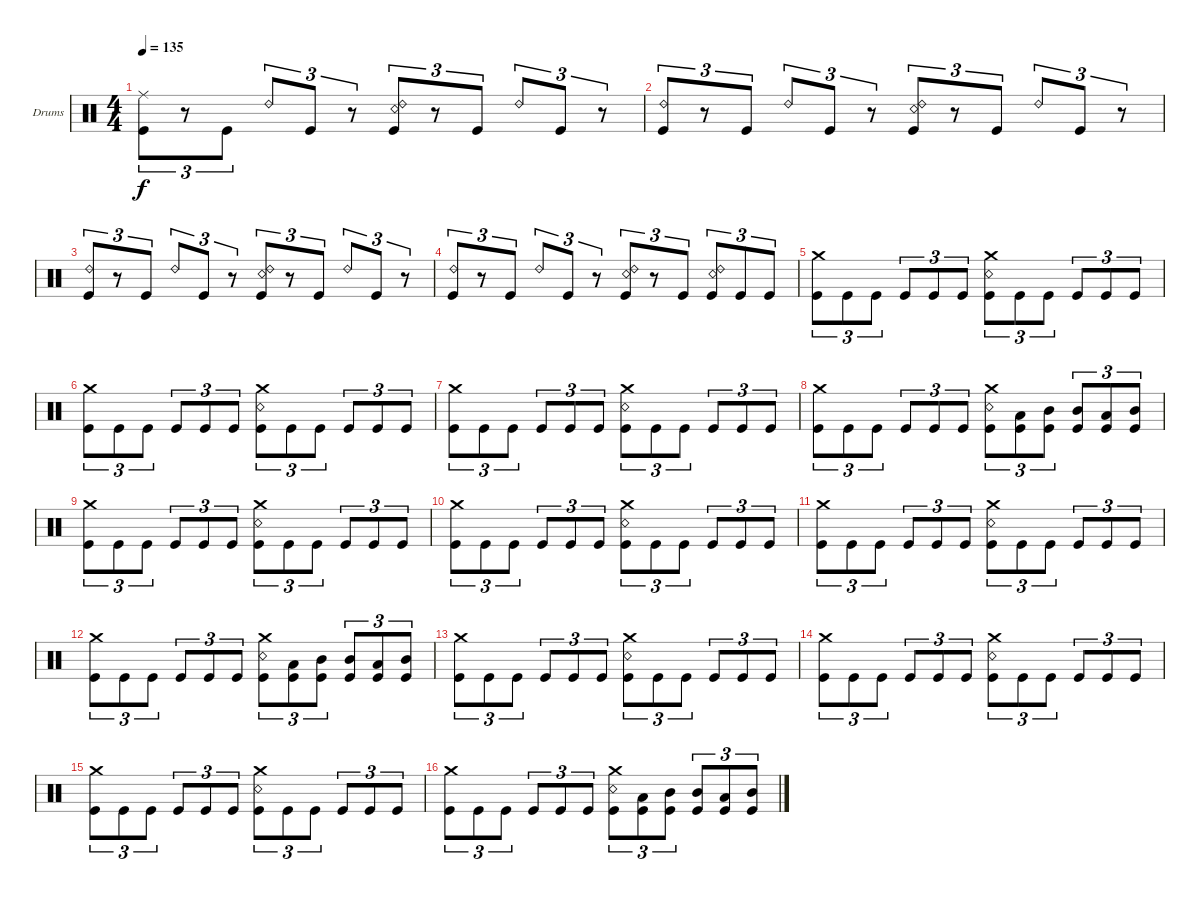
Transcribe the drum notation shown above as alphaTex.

\defaultSystemsLayout 4
\bracketExtendMode groupsimilarinstruments
\firstSystemTrackNameOrientation horizontal
\otherSystemsTrackNameOrientation horizontal
\track ("Drumkit" "Drums") {instrument percussion}
\staff {score}
\articulation defaults
\ts (4 4)
\tempo 135
\clef neutral
\ks c
("Kick (hit)" "Ride (middle)").8{tu (3 2) dy f} r.8{tu (3 2)} "Kick (hit)".8{tu (3 2)} "Ride (bell) 2".8{tu (3 2)} "Kick (hit)".8{tu (3 2)} r.8{tu (3 2)} ("Kick (hit)" "Ride (bell) 2" "Snare (rim shot)").8{tu (3 2)} r.8{tu (3 2)} "Kick (hit)".8{tu (3 2)} "Ride (bell) 2".8{tu (3 2)} "Kick (hit)".8{tu (3 2)} r.8{tu (3 2)} |
("Kick (hit)" "Ride (bell) 2").8{tu (3 2)} r.8{tu (3 2)} "Kick (hit)".8{tu (3 2)} "Ride (bell) 2".8{tu (3 2)} "Kick (hit)".8{tu (3 2)} r.8{tu (3 2)} ("Ride (bell) 2" "Snare (rim shot)" "Kick (hit)").8{tu (3 2)} r.8{tu (3 2)} "Kick (hit)".8{tu (3 2)} "Ride (bell) 2".8{tu (3 2)} "Kick (hit)".8{tu (3 2)} r.8{tu (3 2)} |
("Kick (hit)" "Ride (bell) 2").8{tu (3 2)} r.8{tu (3 2)} "Kick (hit)".8{tu (3 2)} "Ride (bell) 2".8{tu (3 2)} "Kick (hit)".8{tu (3 2)} r.8{tu (3 2)} ("Kick (hit)" "Ride (bell) 2" "Snare (rim shot)").8{tu (3 2)} r.8{tu (3 2)} "Kick (hit)".8{tu (3 2)} "Ride (bell) 2".8{tu (3 2)} "Kick (hit)".8{tu (3 2)} r.8{tu (3 2)} |
("Kick (hit)" "Ride (bell) 2").8{tu (3 2)} r.8{tu (3 2)} "Kick (hit)".8{tu (3 2)} "Ride (bell) 2".8{tu (3 2)} "Kick (hit)".8{tu (3 2)} r.8{tu (3 2)} ("Kick (hit)" "Ride (bell) 2" "Snare (rim shot)").8{tu (3 2)} r.8{tu (3 2)} "Kick (hit)".8{tu (3 2)} ("Ride (bell) 2" "Kick (hit)" "Snare (rim shot)").8{tu (3 2)} "Kick (hit)".8{tu (3 2)} "Kick (hit)".8{tu (3 2)} |
("Kick (hit)" "Crash medium (hit)").8{tu (3 2)} "Kick (hit)".8{tu (3 2)} "Kick (hit)".8{tu (3 2)} "Kick (hit)".8{tu (3 2)} "Kick (hit)".8{tu (3 2)} "Kick (hit)".8{tu (3 2)} ("Kick (hit)" "Crash medium (hit)" "Snare (rim shot)").8{tu (3 2)} "Kick (hit)".8{tu (3 2)} "Kick (hit)".8{tu (3 2)} "Kick (hit)".8{tu (3 2)} "Kick (hit)".8{tu (3 2)} "Kick (hit)".8{tu (3 2)} |
("Kick (hit)" "Crash medium (hit)").8{tu (3 2)} "Kick (hit)".8{tu (3 2)} "Kick (hit)".8{tu (3 2)} "Kick (hit)".8{tu (3 2)} "Kick (hit)".8{tu (3 2)} "Kick (hit)".8{tu (3 2)} ("Kick (hit)" "Crash medium (hit)" "Snare (rim shot)").8{tu (3 2)} "Kick (hit)".8{tu (3 2)} "Kick (hit)".8{tu (3 2)} "Kick (hit)".8{tu (3 2)} "Kick (hit)".8{tu (3 2)} "Kick (hit)".8{tu (3 2)} |
("Kick (hit)" "Crash medium (hit)").8{tu (3 2)} "Kick (hit)".8{tu (3 2)} "Kick (hit)".8{tu (3 2)} "Kick (hit)".8{tu (3 2)} "Kick (hit)".8{tu (3 2)} "Kick (hit)".8{tu (3 2)} ("Kick (hit)" "Crash medium (hit)" "Snare (rim shot)").8{tu (3 2)} "Kick (hit)".8{tu (3 2)} "Kick (hit)".8{tu (3 2)} "Kick (hit)".8{tu (3 2)} "Kick (hit)".8{tu (3 2)} "Kick (hit)".8{tu (3 2)} |
("Kick (hit)" "Crash medium (hit)").8{tu (3 2)} "Kick (hit)".8{tu (3 2)} "Kick (hit)".8{tu (3 2)} "Kick (hit)".8{tu (3 2)} "Kick (hit)".8{tu (3 2)} "Kick (hit)".8{tu (3 2)} ("Kick (hit)" "Crash medium (hit)" "Snare (rim shot)").8{tu (3 2)} ("Kick (hit)" "Low Tom (hit)").8{tu (3 2)} ("Kick (hit)" "Mid Tom (hit)").8{tu (3 2)} ("Kick (hit)" "Mid Tom (hit)").8{tu (3 2)} ("Kick (hit)" "Low Tom (hit)").8{tu (3 2)} ("Kick (hit)" "Mid Tom (hit)").8{tu (3 2)} |
("Kick (hit)" "Crash medium (hit)").8{tu (3 2)} "Kick (hit)".8{tu (3 2)} "Kick (hit)".8{tu (3 2)} "Kick (hit)".8{tu (3 2)} "Kick (hit)".8{tu (3 2)} "Kick (hit)".8{tu (3 2)} ("Kick (hit)" "Crash medium (hit)" "Snare (rim shot)").8{tu (3 2)} "Kick (hit)".8{tu (3 2)} "Kick (hit)".8{tu (3 2)} "Kick (hit)".8{tu (3 2)} "Kick (hit)".8{tu (3 2)} "Kick (hit)".8{tu (3 2)} |
("Kick (hit)" "Crash medium (hit)").8{tu (3 2)} "Kick (hit)".8{tu (3 2)} "Kick (hit)".8{tu (3 2)} "Kick (hit)".8{tu (3 2)} "Kick (hit)".8{tu (3 2)} "Kick (hit)".8{tu (3 2)} ("Kick (hit)" "Crash medium (hit)" "Snare (rim shot)").8{tu (3 2)} "Kick (hit)".8{tu (3 2)} "Kick (hit)".8{tu (3 2)} "Kick (hit)".8{tu (3 2)} "Kick (hit)".8{tu (3 2)} "Kick (hit)".8{tu (3 2)} |
("Kick (hit)" "Crash medium (hit)").8{tu (3 2)} "Kick (hit)".8{tu (3 2)} "Kick (hit)".8{tu (3 2)} "Kick (hit)".8{tu (3 2)} "Kick (hit)".8{tu (3 2)} "Kick (hit)".8{tu (3 2)} ("Kick (hit)" "Crash medium (hit)" "Snare (rim shot)").8{tu (3 2)} "Kick (hit)".8{tu (3 2)} "Kick (hit)".8{tu (3 2)} "Kick (hit)".8{tu (3 2)} "Kick (hit)".8{tu (3 2)} "Kick (hit)".8{tu (3 2)} |
("Kick (hit)" "Crash medium (hit)").8{tu (3 2)} "Kick (hit)".8{tu (3 2)} "Kick (hit)".8{tu (3 2)} "Kick (hit)".8{tu (3 2)} "Kick (hit)".8{tu (3 2)} "Kick (hit)".8{tu (3 2)} ("Kick (hit)" "Crash medium (hit)" "Snare (rim shot)").8{tu (3 2)} ("Kick (hit)" "Low Tom (hit)").8{tu (3 2)} ("Kick (hit)" "Mid Tom (hit)").8{tu (3 2)} ("Kick (hit)" "Mid Tom (hit)").8{tu (3 2)} ("Kick (hit)" "Low Tom (hit)").8{tu (3 2)} ("Kick (hit)" "Mid Tom (hit)").8{tu (3 2)} |
("Kick (hit)" "Crash medium (hit)").8{tu (3 2)} "Kick (hit)".8{tu (3 2)} "Kick (hit)".8{tu (3 2)} "Kick (hit)".8{tu (3 2)} "Kick (hit)".8{tu (3 2)} "Kick (hit)".8{tu (3 2)} ("Kick (hit)" "Crash medium (hit)" "Snare (rim shot)").8{tu (3 2)} "Kick (hit)".8{tu (3 2)} "Kick (hit)".8{tu (3 2)} "Kick (hit)".8{tu (3 2)} "Kick (hit)".8{tu (3 2)} "Kick (hit)".8{tu (3 2)} |
("Kick (hit)" "Crash medium (hit)").8{tu (3 2)} "Kick (hit)".8{tu (3 2)} "Kick (hit)".8{tu (3 2)} "Kick (hit)".8{tu (3 2)} "Kick (hit)".8{tu (3 2)} "Kick (hit)".8{tu (3 2)} ("Kick (hit)" "Crash medium (hit)" "Snare (rim shot)").8{tu (3 2)} "Kick (hit)".8{tu (3 2)} "Kick (hit)".8{tu (3 2)} "Kick (hit)".8{tu (3 2)} "Kick (hit)".8{tu (3 2)} "Kick (hit)".8{tu (3 2)} |
("Kick (hit)" "Crash medium (hit)").8{tu (3 2)} "Kick (hit)".8{tu (3 2)} "Kick (hit)".8{tu (3 2)} "Kick (hit)".8{tu (3 2)} "Kick (hit)".8{tu (3 2)} "Kick (hit)".8{tu (3 2)} ("Kick (hit)" "Crash medium (hit)" "Snare (rim shot)").8{tu (3 2)} "Kick (hit)".8{tu (3 2)} "Kick (hit)".8{tu (3 2)} "Kick (hit)".8{tu (3 2)} "Kick (hit)".8{tu (3 2)} "Kick (hit)".8{tu (3 2)} |
("Kick (hit)" "Crash medium (hit)").8{tu (3 2)} "Kick (hit)".8{tu (3 2)} "Kick (hit)".8{tu (3 2)} "Kick (hit)".8{tu (3 2)} "Kick (hit)".8{tu (3 2)} "Kick (hit)".8{tu (3 2)} ("Kick (hit)" "Crash medium (hit)" "Snare (rim shot)").8{tu (3 2)} ("Kick (hit)" "Low Tom (hit)").8{tu (3 2)} ("Kick (hit)" "Mid Tom (hit)").8{tu (3 2)} ("Kick (hit)" "Mid Tom (hit)").8{tu (3 2)} ("Kick (hit)" "Low Tom (hit)").8{tu (3 2)} ("Kick (hit)" "Mid Tom (hit)").8{tu (3 2)}
